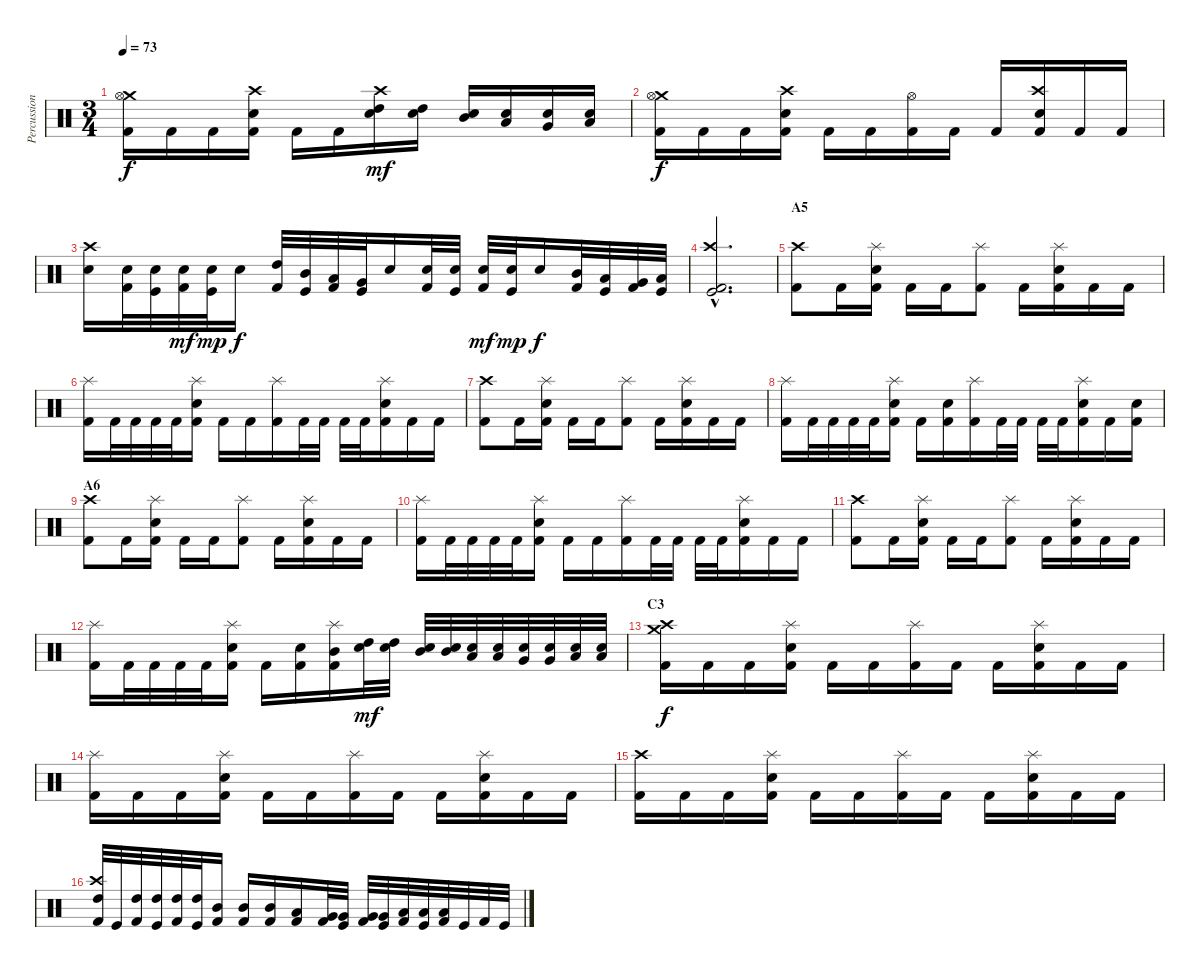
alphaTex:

\track ("Percussion" "Percussion") {instrument percussion}
\staff {score}
\articulation defaults
\ts (3 4)
\tempo 73
\clef neutral
\ks c
("Crash medium (hit)" "Hi-Hat (open)" "Kick (hit) 2").16{dy f} "Kick (hit) 2".16 "Kick (hit) 2".16 ("Crash high (hit)" "Electric Snare (hit)" "Kick (hit) 2").16 "Kick (hit) 2".16 "Kick (hit) 2".16 ("Crash high (hit)" "Electric Snare (hit)" "High Tom (hit)").16{dy mf} ("Electric Snare (hit)" "High Tom (hit)").16 ("Electric Snare (hit)" "Mid Tom (hit)").16 ("Electric Snare (hit)" "Low Tom (hit)").16 ("Electric Snare (hit)" "Very Low Tom (hit)").16 ("Electric Snare (hit)" "Low Floor Tom (hit)").16 |
\section ("" "")
("Crash medium (hit)" "Hi-Hat (open)" "Kick (hit) 2").16{dy f} "Kick (hit) 2".16 "Kick (hit) 2".16 ("Crash high (hit)" "Electric Snare (hit)" "Kick (hit) 2").16 "Kick (hit) 2".16 "Kick (hit) 2".16 ("Hi-Hat (open)" "Kick (hit) 2").16 "Kick (hit) 2".16 "Kick (hit) 2".16 ("Crash high (hit)" "Electric Snare (hit)" "Kick (hit) 2").16 "Kick (hit) 2".16 "Kick (hit) 2".16 |
("Crash high (hit)" "Electric Snare (hit)").16 ("Electric Snare (hit)" "Kick (hit) 2").32 ("Electric Snare (hit)" "Kick (hit)").32 ("Electric Snare (hit)" "Kick (hit) 2").32{dy mf} ("Electric Snare (hit)" "Kick (hit)").32{dy mp} "Electric Snare (hit)".16{dy f} ("High Tom (hit)" "Kick (hit) 2").32 ("Mid Tom (hit)" "Kick (hit)").32 ("Low Tom (hit)" "Kick (hit) 2").32 ("Very Low Tom (hit)" "Kick (hit)").32 "Electric Snare (hit)".16 ("Electric Snare (hit)" "Kick (hit) 2").32 ("Electric Snare (hit)" "Kick (hit)").32 ("Electric Snare (hit)" "Kick (hit) 2").32{dy mf} ("Electric Snare (hit)" "Kick (hit)").32{dy mp} "Electric Snare (hit)".16{dy f} ("Mid Tom (hit)" "Kick (hit) 2").32 ("Low Tom (hit)" "Kick (hit)").32 ("Very Low Tom (hit)" "Kick (hit) 2").32 ("Low Floor Tom (hit)" "Kick (hit)").32 |
("Crash high (hit)"{hac} "Kick (hit) 2"{hac} "Kick (hit)"{hac}).2{d} |
\section ("" "A5")
("Crash high (hit)" "Kick (hit) 2").8 "Kick (hit) 2".16 ("Splash (hit)" "Electric Snare (hit)" "Kick (hit) 2").16 "Kick (hit) 2".16 "Kick (hit) 2".16 ("Splash (hit)" "Kick (hit) 2").8 "Kick (hit) 2".16 ("Splash (hit)" "Electric Snare (hit)" "Kick (hit) 2").16 "Kick (hit) 2".16 "Kick (hit) 2".16 |
("Splash (hit)" "Kick (hit) 2").16 "Kick (hit) 2".32 "Kick (hit) 2".32 "Kick (hit) 2".32 "Kick (hit) 2".32 ("Splash (hit)" "Electric Snare (hit)" "Kick (hit) 2").16 "Kick (hit) 2".16 "Kick (hit) 2".16 ("Splash (hit)" "Kick (hit) 2").16 "Kick (hit) 2".32 "Kick (hit) 2".32 "Kick (hit) 2".32 "Kick (hit) 2".32 ("Splash (hit)" "Electric Snare (hit)" "Kick (hit) 2").16 "Kick (hit) 2".16 "Kick (hit) 2".16 |
("Crash high (hit)" "Kick (hit) 2").8 "Kick (hit) 2".16 ("Splash (hit)" "Electric Snare (hit)" "Kick (hit) 2").16 "Kick (hit) 2".16 "Kick (hit) 2".16 ("Splash (hit)" "Kick (hit) 2").8 "Kick (hit) 2".16 ("Splash (hit)" "Electric Snare (hit)" "Kick (hit) 2").16 "Kick (hit) 2".16 "Kick (hit) 2".16 |
("Splash (hit)" "Kick (hit) 2").16 "Kick (hit) 2".32 "Kick (hit) 2".32 "Kick (hit) 2".32 "Kick (hit) 2".32 ("Splash (hit)" "Electric Snare (hit)" "Kick (hit) 2").16 "Kick (hit) 2".16 ("Electric Snare (hit)" "Kick (hit) 2").16 ("Splash (hit)" "Kick (hit) 2").16 "Kick (hit) 2".32 "Kick (hit) 2".32 "Kick (hit) 2".32 "Kick (hit) 2".32 ("Splash (hit)" "Electric Snare (hit)" "Kick (hit) 2").16 "Kick (hit) 2".16 ("Electric Snare (hit)" "Kick (hit) 2").16 |
\section ("" "A6")
("Crash high (hit)" "Kick (hit) 2").8 "Kick (hit) 2".16 ("Splash (hit)" "Electric Snare (hit)" "Kick (hit) 2").16 "Kick (hit) 2".16 "Kick (hit) 2".16 ("Splash (hit)" "Kick (hit) 2").8 "Kick (hit) 2".16 ("Splash (hit)" "Electric Snare (hit)" "Kick (hit) 2").16 "Kick (hit) 2".16 "Kick (hit) 2".16 |
("Splash (hit)" "Kick (hit) 2").16 "Kick (hit) 2".32 "Kick (hit) 2".32 "Kick (hit) 2".32 "Kick (hit) 2".32 ("Splash (hit)" "Electric Snare (hit)" "Kick (hit) 2").16 "Kick (hit) 2".16 "Kick (hit) 2".16 ("Splash (hit)" "Kick (hit) 2").16 "Kick (hit) 2".32 "Kick (hit) 2".32 "Kick (hit) 2".32 "Kick (hit) 2".32 ("Splash (hit)" "Electric Snare (hit)" "Kick (hit) 2").16 "Kick (hit) 2".16 "Kick (hit) 2".16 |
("Crash high (hit)" "Kick (hit) 2").8 "Kick (hit) 2".16 ("Splash (hit)" "Electric Snare (hit)" "Kick (hit) 2").16 "Kick (hit) 2".16 "Kick (hit) 2".16 ("Splash (hit)" "Kick (hit) 2").8 "Kick (hit) 2".16 ("Splash (hit)" "Electric Snare (hit)" "Kick (hit) 2").16 "Kick (hit) 2".16 "Kick (hit) 2".16 |
("Splash (hit)" "Kick (hit) 2").16 "Kick (hit) 2".32 "Kick (hit) 2".32 "Kick (hit) 2".32 "Kick (hit) 2".32 ("Splash (hit)" "Electric Snare (hit)" "Kick (hit) 2").16 "Kick (hit) 2".16 ("Electric Snare (hit)" "Kick (hit) 2").16 ("Splash (hit)" "Mid Tom (hit)" "Kick (hit) 2").16 ("High Tom (hit)" "Electric Snare (hit)").32{dy mf} ("High Tom (hit)" "Electric Snare (hit)").32 ("Mid Tom (hit)" "Electric Snare (hit)").32 ("Mid Tom (hit)" "Electric Snare (hit)").32 ("Low Tom (hit)" "Electric Snare (hit)").32 ("Low Tom (hit)" "Electric Snare (hit)").32 ("Very Low Tom (hit)" "Electric Snare (hit)").32 ("Very Low Tom (hit)" "Electric Snare (hit)").32 ("Low Floor Tom (hit)" "Electric Snare (hit)").32 ("Low Floor Tom (hit)" "Electric Snare (hit)").32 |
\section ("" "C3")
("Crash medium (hit)" "Crash high (hit)" "Kick (hit) 2").16{dy f} "Kick (hit) 2".16 "Kick (hit) 2".16 ("Electric Snare (hit)" "Splash (hit)" "Kick (hit) 2").16 "Kick (hit) 2".16 "Kick (hit) 2".16 ("Splash (hit)" "Kick (hit) 2").16 "Kick (hit) 2".16 "Kick (hit) 2".16 ("Electric Snare (hit)" "Splash (hit)" "Kick (hit) 2").16 "Kick (hit) 2".16 "Kick (hit) 2".16 |
("Splash (hit)" "Kick (hit) 2").16 "Kick (hit) 2".16 "Kick (hit) 2".16 ("Electric Snare (hit)" "Splash (hit)" "Kick (hit) 2").16 "Kick (hit) 2".16 "Kick (hit) 2".16 ("Splash (hit)" "Kick (hit) 2").16 "Kick (hit) 2".16 "Kick (hit) 2".16 ("Electric Snare (hit)" "Splash (hit)" "Kick (hit) 2").16 "Kick (hit) 2".16 "Kick (hit) 2".16 |
("Crash high (hit)" "Kick (hit) 2").16 "Kick (hit) 2".16 "Kick (hit) 2".16 ("Electric Snare (hit)" "Splash (hit)" "Kick (hit) 2").16 "Kick (hit) 2".16 "Kick (hit) 2".16 ("Splash (hit)" "Kick (hit) 2").16 "Kick (hit) 2".16 "Kick (hit) 2".16 ("Electric Snare (hit)" "Splash (hit)" "Kick (hit) 2").16 "Kick (hit) 2".16 "Kick (hit) 2".16 |
("Crash high (hit)" "High Tom (hit)" "Kick (hit) 2").32 "Kick (hit)".32 ("High Tom (hit)" "Kick (hit) 2").32 ("High Tom (hit)" "Kick (hit)").32 ("High Tom (hit)" "Kick (hit) 2").32 ("High Tom (hit)" "Kick (hit)").32 ("Mid Tom (hit)" "Kick (hit) 2").16 ("Mid Tom (hit)" "Kick (hit) 2").16 ("Mid Tom (hit)" "Kick (hit) 2").16 ("Low Tom (hit)" "Kick (hit) 2").16 ("Very Low Tom (hit)" "Kick (hit) 2").32 ("Very Low Tom (hit)" "Kick (hit)").32 ("Very Low Tom (hit)" "Kick (hit) 2").32 ("Very Low Tom (hit)" "Kick (hit)").32 ("Low Floor Tom (hit)" "Kick (hit) 2").32 ("Low Floor Tom (hit)" "Kick (hit)").32 ("Low Floor Tom (hit)" "Kick (hit) 2").32 "Kick (hit)".32 "Kick (hit) 2".32 "Kick (hit)".32
